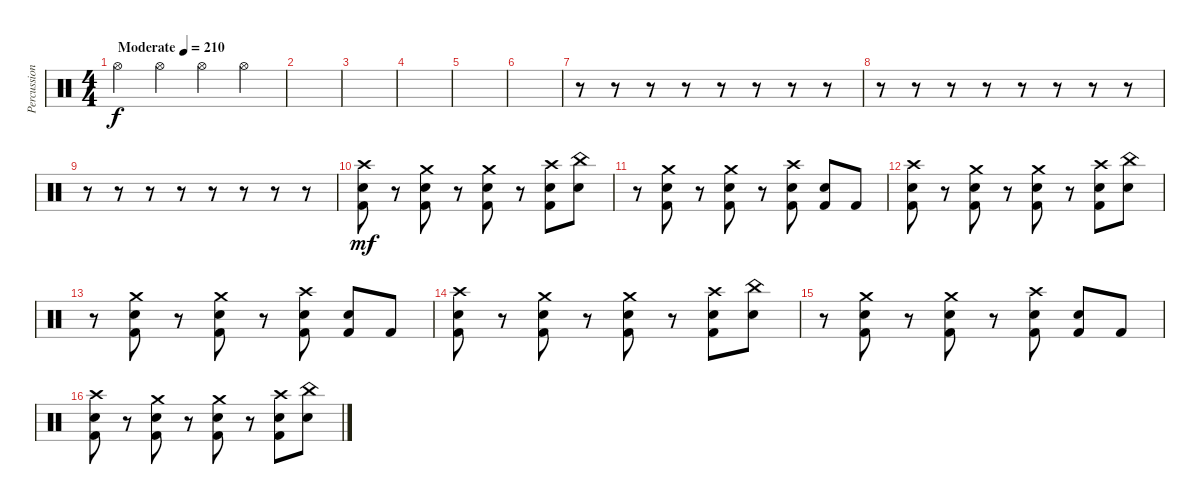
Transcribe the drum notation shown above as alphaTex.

\track ("Percussion" "Percussion") {instrument percussion bank 255}
\staff {score}
\articulation defaults
\ts (4 4)
\tempo (210 "Moderate")
\clef neutral
\ks c "Hi-Hat (open)".4{dy f} "Hi-Hat (open)".4 "Hi-Hat (open)".4 "Hi-Hat (open)".4
|
|
|
|
|
|
r.8 r.8 r.8 r.8 r.8 r.8 r.8 r.8 |
r.8 r.8 r.8 r.8 r.8 r.8 r.8 r.8 |
r.8 r.8 r.8 r.8 r.8 r.8 r.8 r.8 |
("Crash high (hit)" "Electric Snare (hit)" "Kick (hit) 2").8{dy mf} r.8 ("Crash medium (hit)" "Electric Snare (hit)" "Kick (hit) 2").8 r.8 ("Crash medium (hit)" "Electric Snare (hit)" "Kick (hit) 2").8 r.8 ("Crash high (hit)" "Electric Snare (hit)" "Kick (hit) 2").8 ("China (hit)" "Electric Snare (hit)").8 |
r.8 ("Crash medium (hit)" "Electric Snare (hit)" "Kick (hit) 2").8 r.8 ("Crash medium (hit)" "Electric Snare (hit)" "Kick (hit) 2").8 r.8 ("Crash high (hit)" "Electric Snare (hit)" "Kick (hit) 2").8 ("Electric Snare (hit)" "Kick (hit) 2").8 "Kick (hit) 2".8 |
("Crash high (hit)" "Electric Snare (hit)" "Kick (hit) 2").8 r.8 ("Crash medium (hit)" "Electric Snare (hit)" "Kick (hit) 2").8 r.8 ("Crash medium (hit)" "Electric Snare (hit)" "Kick (hit) 2").8 r.8 ("Crash high (hit)" "Electric Snare (hit)" "Kick (hit) 2").8 ("China (hit)" "Electric Snare (hit)").8 |
r.8 ("Crash medium (hit)" "Electric Snare (hit)" "Kick (hit) 2").8 r.8 ("Crash medium (hit)" "Electric Snare (hit)" "Kick (hit) 2").8 r.8 ("Crash high (hit)" "Electric Snare (hit)" "Kick (hit) 2").8 ("Electric Snare (hit)" "Kick (hit) 2").8 "Kick (hit) 2".8 |
("Crash high (hit)" "Electric Snare (hit)" "Kick (hit) 2").8 r.8 ("Crash medium (hit)" "Electric Snare (hit)" "Kick (hit) 2").8 r.8 ("Crash medium (hit)" "Electric Snare (hit)" "Kick (hit) 2").8 r.8 ("Crash high (hit)" "Electric Snare (hit)" "Kick (hit) 2").8 ("China (hit)" "Electric Snare (hit)").8 |
r.8 ("Crash medium (hit)" "Electric Snare (hit)" "Kick (hit) 2").8 r.8 ("Crash medium (hit)" "Electric Snare (hit)" "Kick (hit) 2").8 r.8 ("Crash high (hit)" "Electric Snare (hit)" "Kick (hit) 2").8 ("Electric Snare (hit)" "Kick (hit) 2").8 "Kick (hit) 2".8 |
("Crash high (hit)" "Electric Snare (hit)" "Kick (hit) 2").8 r.8 ("Crash medium (hit)" "Electric Snare (hit)" "Kick (hit) 2").8 r.8 ("Crash medium (hit)" "Electric Snare (hit)" "Kick (hit) 2").8 r.8 ("Crash high (hit)" "Electric Snare (hit)" "Kick (hit) 2").8 ("China (hit)" "Electric Snare (hit)").8
